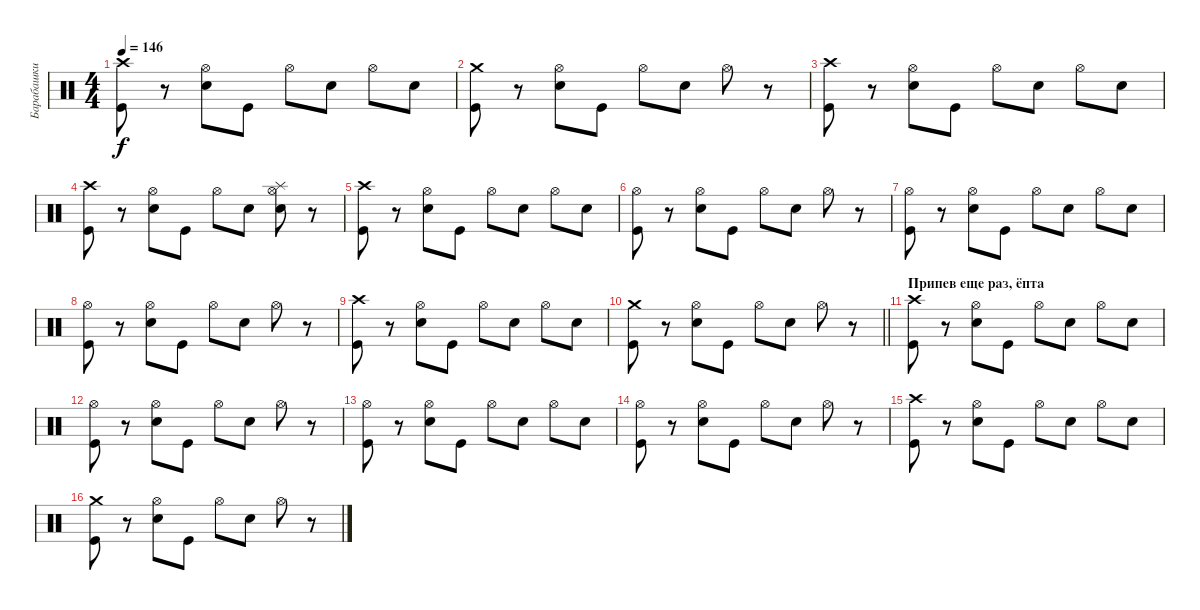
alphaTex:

\track ("Барабашки" "Барабашки") {instrument percussion}
\staff {score}
\articulation defaults
\ts (4 4)
\tempo 146
\clef neutral
\ks c
("Crash high (hit)" "Kick (hit)").8{dy f} r.8 ("Hi-Hat (open)" "Snare (hit) 2").8 "Kick (hit)".8 "Hi-Hat (open)".8 "Snare (hit) 2".8 "Hi-Hat (open)".8 "Snare (hit) 2".8 |
("Crash medium (hit)" "Kick (hit)").8 r.8 ("Hi-Hat (open)" "Snare (hit) 2").8 "Kick (hit)".8 "Hi-Hat (open)".8 "Snare (hit) 2".8 "Hi-Hat (open)".8 r.8 |
("Crash high (hit)" "Kick (hit)").8 r.8 ("Hi-Hat (open)" "Snare (hit) 2").8 "Kick (hit)".8 "Hi-Hat (open)".8 "Snare (hit) 2".8 "Hi-Hat (open)".8 "Snare (hit) 2".8 |
("Crash high (hit)" "Kick (hit)").8 r.8 ("Hi-Hat (open)" "Snare (hit) 2").8 "Kick (hit)".8 "Hi-Hat (open)".8 "Snare (hit) 2".8 ("Hi-Hat (open)" "Splash (hit)" "Hand Clap (hit)").8 r.8 |
("Crash high (hit)" "Kick (hit)").8 r.8 ("Hi-Hat (open)" "Snare (hit) 2").8 "Kick (hit)".8 "Hi-Hat (open)".8 "Snare (hit) 2".8 "Hi-Hat (open)".8 "Snare (hit) 2".8 |
("Hi-Hat (open)" "Kick (hit)").8 r.8 ("Hi-Hat (open)" "Snare (hit) 2").8 "Kick (hit)".8 "Hi-Hat (open)".8 "Snare (hit) 2".8 "Hi-Hat (open)".8 r.8 |
("Hi-Hat (open)" "Kick (hit)").8 r.8 ("Hi-Hat (open)" "Snare (hit) 2").8 "Kick (hit)".8 "Hi-Hat (open)".8 "Snare (hit) 2".8 "Hi-Hat (open)".8 "Snare (hit) 2".8 |
("Hi-Hat (open)" "Kick (hit)").8 r.8 ("Hi-Hat (open)" "Snare (hit) 2").8 "Kick (hit)".8 "Hi-Hat (open)".8 "Snare (hit) 2".8 "Hi-Hat (open)".8 r.8 |
("Crash high (hit)" "Kick (hit)").8 r.8 ("Hi-Hat (open)" "Snare (hit) 2").8 "Kick (hit)".8 "Hi-Hat (open)".8 "Snare (hit) 2".8 "Hi-Hat (open)".8 "Snare (hit) 2".8 |
\barLineRight lightlight
("Crash medium (hit)" "Kick (hit)").8 r.8 ("Hi-Hat (open)" "Snare (hit) 2").8 "Kick (hit)".8 "Hi-Hat (open)".8 "Snare (hit) 2".8 "Hi-Hat (open)".8 r.8 |
\section ("" "Припев еще раз, ёпта")
("Crash high (hit)" "Kick (hit)").8 r.8 ("Hi-Hat (open)" "Snare (hit) 2").8 "Kick (hit)".8 "Hi-Hat (open)".8 "Snare (hit) 2".8 "Hi-Hat (open)".8 "Snare (hit) 2".8 |
("Hi-Hat (open)" "Kick (hit)").8 r.8 ("Hi-Hat (open)" "Snare (hit) 2").8 "Kick (hit)".8 "Hi-Hat (open)".8 "Snare (hit) 2".8 "Hi-Hat (open)".8 r.8 |
("Hi-Hat (open)" "Kick (hit)").8 r.8 ("Hi-Hat (open)" "Snare (hit) 2").8 "Kick (hit)".8 "Hi-Hat (open)".8 "Snare (hit) 2".8 "Hi-Hat (open)".8 "Snare (hit) 2".8 |
("Hi-Hat (open)" "Kick (hit)").8 r.8 ("Hi-Hat (open)" "Snare (hit) 2").8 "Kick (hit)".8 "Hi-Hat (open)".8 "Snare (hit) 2".8 "Hi-Hat (open)".8 r.8 |
("Crash high (hit)" "Kick (hit)").8 r.8 ("Hi-Hat (open)" "Snare (hit) 2").8 "Kick (hit)".8 "Hi-Hat (open)".8 "Snare (hit) 2".8 "Hi-Hat (open)".8 "Snare (hit) 2".8 |
("Crash medium (hit)" "Kick (hit)").8 r.8 ("Hi-Hat (open)" "Snare (hit) 2").8 "Kick (hit)".8 "Hi-Hat (open)".8 "Snare (hit) 2".8 "Hi-Hat (open)".8 r.8
